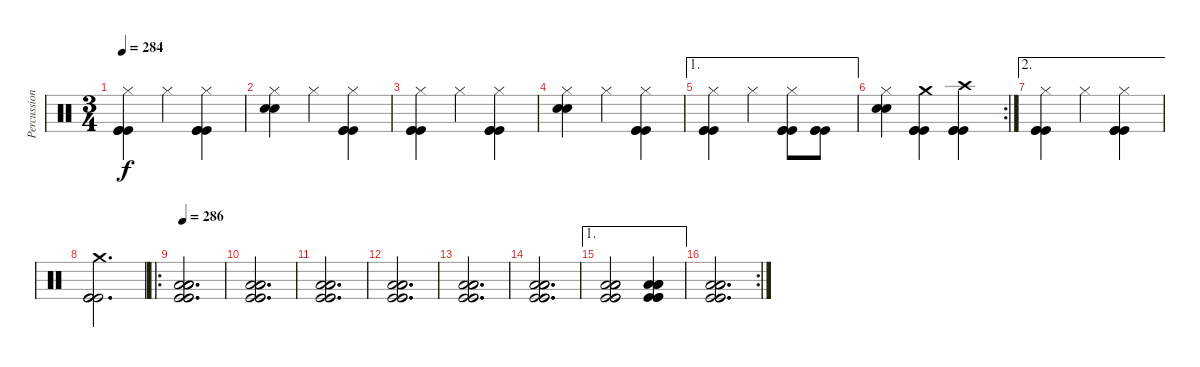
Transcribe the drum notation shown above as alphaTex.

\track ("Percussion" "Percussion") {instrument percussion}
\staff {score}
\articulation defaults
\ts (3 4)
\tempo 284
\clef neutral
\ks c
("Hi-Hat (closed)" "Kick (hit)" "Kick (hit)" "Kick (hit)").4{dy f} "Hi-Hat (closed)".4 ("Hi-Hat (closed)" "Kick (hit)" "Kick (hit)" "Kick (hit)").4 |
("Hi-Hat (closed)" "Electric Snare (hit)" "Snare (hit) 2").4 "Hi-Hat (closed)".4 ("Hi-Hat (closed)" "Kick (hit)" "Kick (hit)" "Kick (hit)").4 |
("Hi-Hat (closed)" "Kick (hit)" "Kick (hit)" "Kick (hit)").4 "Hi-Hat (closed)".4 ("Hi-Hat (closed)" "Kick (hit)" "Kick (hit)" "Kick (hit)").4 |
("Hi-Hat (closed)" "Electric Snare (hit)" "Snare (hit) 2").4 "Hi-Hat (closed)".4 ("Hi-Hat (closed)" "Kick (hit)" "Kick (hit)" "Kick (hit)").4 |
\ae 1
("Hi-Hat (closed)" "Kick (hit)" "Kick (hit)" "Kick (hit)").4 "Hi-Hat (closed)".4 ("Hi-Hat (closed)" "Kick (hit)" "Kick (hit)" "Kick (hit)").8 ("Kick (hit)" "Kick (hit)" "Kick (hit)").8 |
\rc 2
("Hi-Hat (closed)" "Snare (hit) 2" "Electric Snare (hit)").4 ("Crash medium (hit)" "Kick (hit)" "Kick (hit)" "Kick (hit)").4 ("Crash high (hit)" "Kick (hit)" "Kick (hit)" "Kick (hit)").4 |
\ae 2
("Hi-Hat (closed)" "Kick (hit)" "Kick (hit)" "Kick (hit)").4 "Hi-Hat (closed)".4 ("Hi-Hat (closed)" "Kick (hit)" "Kick (hit)" "Kick (hit)").4 |
("Crash medium (hit)" "Kick (hit)" "Kick (hit)" "Kick (hit)").2{d} |
\ro
\tempo 286
("Low Floor Tom (hit)" "Low Floor Tom (hit)" "Low Floor Tom (hit)" "Kick (hit)" "Kick (hit)" "Kick (hit)").2{d} |
("Low Floor Tom (hit)" "Low Floor Tom (hit)" "Low Floor Tom (hit)" "Kick (hit)" "Kick (hit)" "Kick (hit)").2{d} |
("Low Floor Tom (hit)" "Low Floor Tom (hit)" "Low Floor Tom (hit)" "Kick (hit)" "Kick (hit)" "Kick (hit)").2{d} |
("Low Floor Tom (hit)" "Low Floor Tom (hit)" "Low Floor Tom (hit)" "Kick (hit)" "Kick (hit)" "Kick (hit)").2{d} |
("Low Floor Tom (hit)" "Low Floor Tom (hit)" "Low Floor Tom (hit)" "Kick (hit)" "Kick (hit)" "Kick (hit)").2{d} |
("Low Floor Tom (hit)" "Low Floor Tom (hit)" "Low Floor Tom (hit)" "Kick (hit)" "Kick (hit)" "Kick (hit)").2{d} |
\ae 1
("Low Floor Tom (hit)" "Low Floor Tom (hit)" "Low Floor Tom (hit)" "Kick (hit)" "Kick (hit)" "Kick (hit)").2 ("Low Floor Tom (hit)" "Low Floor Tom (hit)" "Low Floor Tom (hit)" "Kick (hit)" "Kick (hit)" "Kick (hit)").4 |
\rc 2
("Low Floor Tom (hit)" "Low Floor Tom (hit)" "Low Floor Tom (hit)" "Kick (hit)" "Kick (hit)" "Kick (hit)").2{d}
